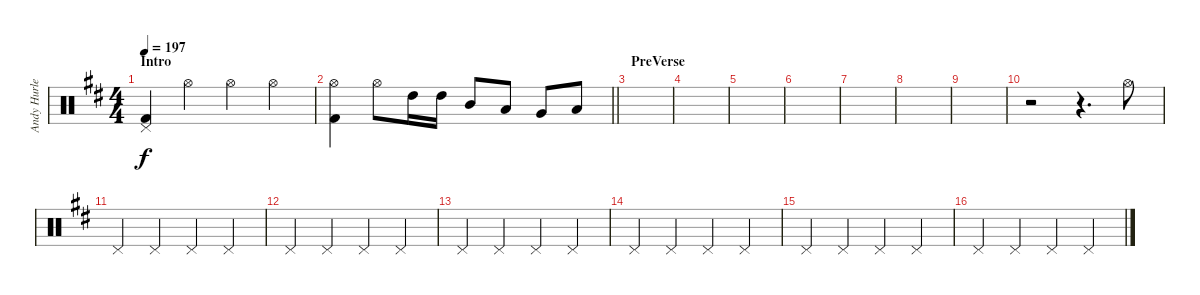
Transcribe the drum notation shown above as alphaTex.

\track ("Andy Hurley (Drums)" "Andy Hurle") {instrument percussion}
\staff {score}
\articulation defaults
\ts (4 4)
\section ("" "Intro")
\tempo 197
\clef neutral
\ks d
("Pedal Hi-Hat (hit)" "Kick (hit) 2").4{dy f} "Hi-Hat (open)".4 "Hi-Hat (open)".4 "Hi-Hat (open)".4 |
\barLineRight lightlight
("Hi-Hat (open)" "Kick (hit) 2").4 "Hi-Hat (open)".8 "High Tom (hit)".16 "High Tom (hit)".16 "Mid Tom (hit)".8 "Low Tom (hit)".8 "Very Low Tom (hit)".8 "Low Floor Tom (hit)".8 |
\section ("" "PreVerse")
|
|
|
|
|
|
|
r.2 r.4{d} "Hi-Hat (open)".8 |
"Pedal Hi-Hat (hit)".4 "Pedal Hi-Hat (hit)".4 "Pedal Hi-Hat (hit)".4 "Pedal Hi-Hat (hit)".4 |
"Pedal Hi-Hat (hit)".4 "Pedal Hi-Hat (hit)".4 "Pedal Hi-Hat (hit)".4 "Pedal Hi-Hat (hit)".4 |
"Pedal Hi-Hat (hit)".4 "Pedal Hi-Hat (hit)".4 "Pedal Hi-Hat (hit)".4 "Pedal Hi-Hat (hit)".4 |
"Pedal Hi-Hat (hit)".4 "Pedal Hi-Hat (hit)".4 "Pedal Hi-Hat (hit)".4 "Pedal Hi-Hat (hit)".4 |
"Pedal Hi-Hat (hit)".4 "Pedal Hi-Hat (hit)".4 "Pedal Hi-Hat (hit)".4 "Pedal Hi-Hat (hit)".4 |
"Pedal Hi-Hat (hit)".4 "Pedal Hi-Hat (hit)".4 "Pedal Hi-Hat (hit)".4 "Pedal Hi-Hat (hit)".4
